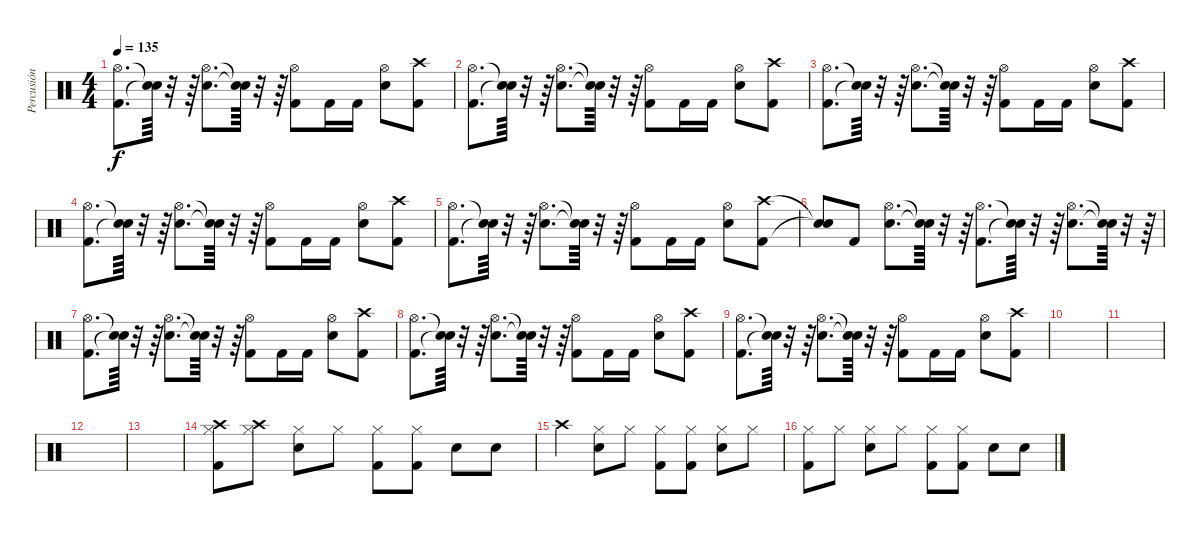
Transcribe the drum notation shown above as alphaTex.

\track ("Percusión" "Percusión") {instrument percussion}
\staff {score}
\articulation defaults
\ts (4 4)
\tempo 135
\clef neutral
\ks c
("Kick (hit) 2" "Hi-Hat (open)").8{d dy f} ("Snare (hit)"{t} "Snare (hit)"{t}).64 r.32 r.64 ("Snare (hit) 2" "Hi-Hat (open)").8{d} ("Snare (hit)"{t} "Snare (hit)"{t}).64 r.32 r.64 ("Kick (hit) 2" "Hi-Hat (open)").8 "Kick (hit) 2".16 "Kick (hit) 2".16 ("Snare (hit) 2" "Hi-Hat (open)").8 ("Kick (hit) 2" "Crash high (hit)").8 |
("Kick (hit) 2" "Hi-Hat (open)").8{d} ("Snare (hit)"{t} "Snare (hit)"{t}).64 r.32 r.64 ("Snare (hit) 2" "Hi-Hat (open)").8{d} ("Snare (hit)"{t} "Snare (hit)"{t}).64 r.32 r.64 ("Kick (hit) 2" "Hi-Hat (open)").8 "Kick (hit) 2".16 "Kick (hit) 2".16 ("Snare (hit) 2" "Hi-Hat (open)").8 ("Kick (hit) 2" "Crash high (hit)").8 |
("Kick (hit) 2" "Hi-Hat (open)").8{d} ("Snare (hit)"{t} "Snare (hit)"{t}).64 r.32 r.64 ("Snare (hit) 2" "Hi-Hat (open)").8{d} ("Snare (hit)"{t} "Snare (hit)"{t}).64 r.32 r.64 ("Kick (hit) 2" "Hi-Hat (open)").8 "Kick (hit) 2".16 "Kick (hit) 2".16 ("Snare (hit) 2" "Hi-Hat (open)").8 ("Kick (hit) 2" "Crash high (hit)").8 |
("Kick (hit) 2" "Hi-Hat (open)").8{d} ("Snare (hit)"{t} "Snare (hit)"{t}).64 r.32 r.64 ("Snare (hit) 2" "Hi-Hat (open)").8{d} ("Snare (hit)"{t} "Snare (hit)"{t}).64 r.32 r.64 ("Kick (hit) 2" "Hi-Hat (open)").8 "Kick (hit) 2".16 "Kick (hit) 2".16 ("Snare (hit) 2" "Hi-Hat (open)").8 ("Kick (hit) 2" "Crash high (hit)").8 |
("Kick (hit) 2" "Hi-Hat (open)").8{d} ("Snare (hit)"{t} "Snare (hit)"{t}).64 r.32 r.64 ("Snare (hit) 2" "Hi-Hat (open)").8{d} ("Snare (hit)"{t} "Snare (hit)"{t}).64 r.32 r.64 ("Kick (hit) 2" "Hi-Hat (open)").8 "Kick (hit) 2".16 "Kick (hit) 2".16 ("Snare (hit) 2" "Hi-Hat (open)").8 ("Kick (hit) 2" "Crash high (hit)").8 |
("Snare (hit)"{t} "Snare (hit)"{t}).8 "Kick (hit) 2".8 ("Snare (hit) 2" "Hi-Hat (open)").8{d} ("Snare (hit)"{t} "Snare (hit)"{t}).64 r.32 r.64 ("Kick (hit) 2" "Hi-Hat (open)").8{d} ("Snare (hit)"{t} "Snare (hit)"{t}).64 r.32 r.64 ("Snare (hit) 2" "Hi-Hat (open)").8{d} ("Snare (hit)"{t} "Snare (hit)"{t}).64 r.32 r.64 |
("Kick (hit) 2" "Hi-Hat (open)").8{d} ("Snare (hit)"{t} "Snare (hit)"{t}).64 r.32 r.64 ("Snare (hit) 2" "Hi-Hat (open)").8{d} ("Snare (hit)"{t} "Snare (hit)"{t}).64 r.32 r.64 ("Kick (hit) 2" "Hi-Hat (open)").8 "Kick (hit) 2".16 "Kick (hit) 2".16 ("Snare (hit) 2" "Hi-Hat (open)").8 ("Kick (hit) 2" "Crash high (hit)").8 |
("Kick (hit) 2" "Hi-Hat (open)").8{d} ("Snare (hit)"{t} "Snare (hit)"{t}).64 r.32 r.64 ("Snare (hit) 2" "Hi-Hat (open)").8{d} ("Snare (hit)"{t} "Snare (hit)"{t}).64 r.32 r.64 ("Kick (hit) 2" "Hi-Hat (open)").8 "Kick (hit) 2".16 "Kick (hit) 2".16 ("Snare (hit) 2" "Hi-Hat (open)").8 ("Kick (hit) 2" "Crash high (hit)").8 |
("Kick (hit) 2" "Hi-Hat (open)").8{d} ("Snare (hit)"{t} "Snare (hit)"{t}).64 r.32 r.64 ("Snare (hit) 2" "Hi-Hat (open)").8{d} ("Snare (hit)"{t} "Snare (hit)"{t}).64 r.32 r.64 ("Kick (hit) 2" "Hi-Hat (open)").8 "Kick (hit) 2".16 "Kick (hit) 2".16 ("Snare (hit) 2" "Hi-Hat (open)").8 ("Kick (hit) 2" "Crash high (hit)").8 |
|
|
|
|
("Crash high (hit)" "Kick (hit) 2" "Hi-Hat (closed)").8 ("Crash high (hit)" "Hi-Hat (closed)").8 ("Snare (hit) 2" "Hi-Hat (closed)").8 "Hi-Hat (closed)".8 ("Kick (hit) 2" "Hi-Hat (closed)").8 ("Kick (hit) 2" "Hi-Hat (closed)").8 "Snare (hit) 2".8 "Snare (hit) 2".8 |
"Crash high (hit)".4 ("Snare (hit) 2" "Hi-Hat (closed)").8 "Hi-Hat (closed)".8 ("Kick (hit) 2" "Hi-Hat (closed)").8 ("Kick (hit) 2" "Hi-Hat (closed)").8 ("Snare (hit) 2" "Hi-Hat (closed)").8 "Hi-Hat (closed)".8 |
("Kick (hit) 2" "Hi-Hat (closed)").8 "Hi-Hat (closed)".8 ("Snare (hit) 2" "Hi-Hat (closed)").8 "Hi-Hat (closed)".8 ("Kick (hit) 2" "Hi-Hat (closed)").8 ("Kick (hit) 2" "Hi-Hat (closed)").8 "Snare (hit) 2".8 "Snare (hit) 2".8
